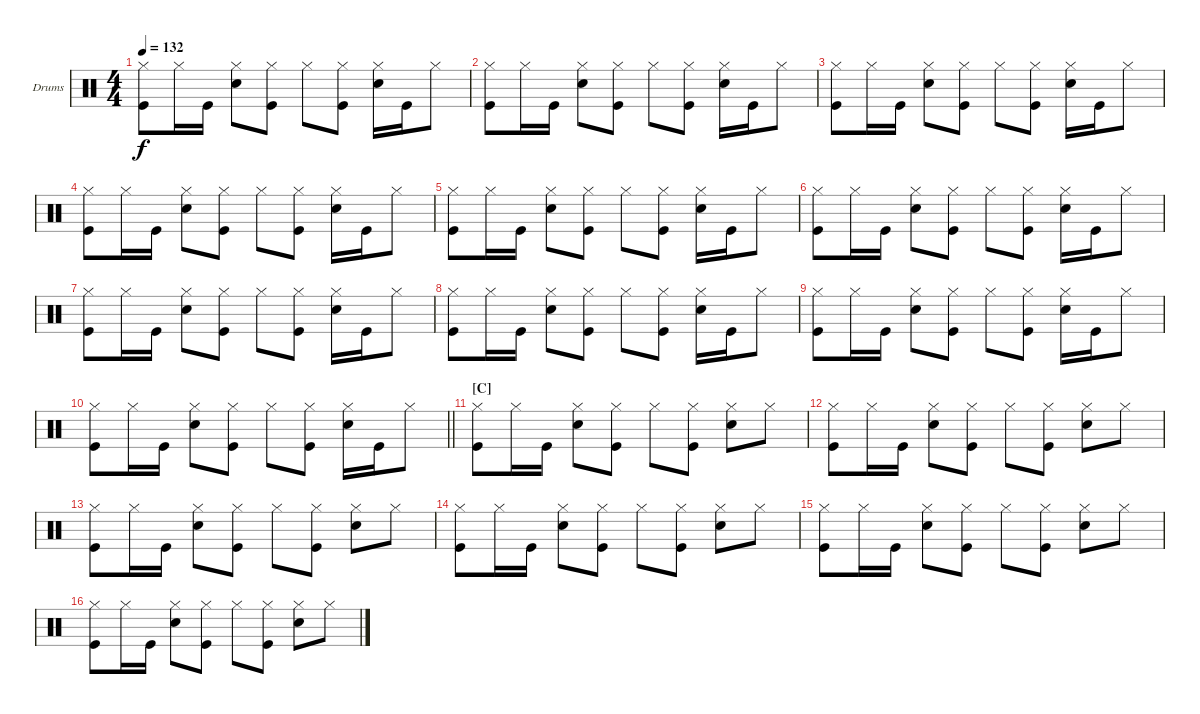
\bracketExtendMode groupsimilarinstruments
\firstSystemTrackNameOrientation horizontal
\otherSystemsTrackNameOrientation horizontal
\track ("Fabrizio Moretti" "Drums") {instrument percussion}
\staff {score}
\articulation defaults
\ts (4 4)
\tempo 132
\clef neutral
\ks c
("Hi-Hat (closed)" "Kick (hit)").8{dy f} "Hi-Hat (closed)".16 "Kick (hit)".16 ("Hi-Hat (closed)" "Snare (hit) 2").8 ("Hi-Hat (closed)" "Kick (hit)").8 "Hi-Hat (closed)".8 ("Hi-Hat (closed)" "Kick (hit)").8 ("Hi-Hat (closed)" "Snare (hit) 2").16 "Kick (hit)".16 "Hi-Hat (closed)".8 |
("Hi-Hat (closed)" "Kick (hit)").8 "Hi-Hat (closed)".16 "Kick (hit)".16 ("Hi-Hat (closed)" "Snare (hit) 2").8 ("Hi-Hat (closed)" "Kick (hit)").8 "Hi-Hat (closed)".8 ("Hi-Hat (closed)" "Kick (hit)").8 ("Hi-Hat (closed)" "Snare (hit) 2").16 "Kick (hit)".16 "Hi-Hat (closed)".8 |
("Hi-Hat (closed)" "Kick (hit)").8 "Hi-Hat (closed)".16 "Kick (hit)".16 ("Hi-Hat (closed)" "Snare (hit) 2").8 ("Hi-Hat (closed)" "Kick (hit)").8 "Hi-Hat (closed)".8 ("Hi-Hat (closed)" "Kick (hit)").8 ("Hi-Hat (closed)" "Snare (hit) 2").16 "Kick (hit)".16 "Hi-Hat (closed)".8 |
("Hi-Hat (closed)" "Kick (hit)").8 "Hi-Hat (closed)".16 "Kick (hit)".16 ("Hi-Hat (closed)" "Snare (hit) 2").8 ("Hi-Hat (closed)" "Kick (hit)").8 "Hi-Hat (closed)".8 ("Hi-Hat (closed)" "Kick (hit)").8 ("Hi-Hat (closed)" "Snare (hit) 2").16 "Kick (hit)".16 "Hi-Hat (closed)".8 |
("Hi-Hat (closed)" "Kick (hit)").8 "Hi-Hat (closed)".16 "Kick (hit)".16 ("Hi-Hat (closed)" "Snare (hit) 2").8 ("Hi-Hat (closed)" "Kick (hit)").8 "Hi-Hat (closed)".8 ("Hi-Hat (closed)" "Kick (hit)").8 ("Hi-Hat (closed)" "Snare (hit) 2").16 "Kick (hit)".16 "Hi-Hat (closed)".8 |
("Hi-Hat (closed)" "Kick (hit)").8 "Hi-Hat (closed)".16 "Kick (hit)".16 ("Hi-Hat (closed)" "Snare (hit) 2").8 ("Hi-Hat (closed)" "Kick (hit)").8 "Hi-Hat (closed)".8 ("Hi-Hat (closed)" "Kick (hit)").8 ("Hi-Hat (closed)" "Snare (hit) 2").16 "Kick (hit)".16 "Hi-Hat (closed)".8 |
("Hi-Hat (closed)" "Kick (hit)").8 "Hi-Hat (closed)".16 "Kick (hit)".16 ("Hi-Hat (closed)" "Snare (hit) 2").8 ("Hi-Hat (closed)" "Kick (hit)").8 "Hi-Hat (closed)".8 ("Hi-Hat (closed)" "Kick (hit)").8 ("Hi-Hat (closed)" "Snare (hit) 2").16 "Kick (hit)".16 "Hi-Hat (closed)".8 |
("Hi-Hat (closed)" "Kick (hit)").8 "Hi-Hat (closed)".16 "Kick (hit)".16 ("Hi-Hat (closed)" "Snare (hit) 2").8 ("Hi-Hat (closed)" "Kick (hit)").8 "Hi-Hat (closed)".8 ("Hi-Hat (closed)" "Kick (hit)").8 ("Hi-Hat (closed)" "Snare (hit) 2").16 "Kick (hit)".16 "Hi-Hat (closed)".8 |
("Hi-Hat (closed)" "Kick (hit)").8 "Hi-Hat (closed)".16 "Kick (hit)".16 ("Hi-Hat (closed)" "Snare (hit) 2").8 ("Hi-Hat (closed)" "Kick (hit)").8 "Hi-Hat (closed)".8 ("Hi-Hat (closed)" "Kick (hit)").8 ("Hi-Hat (closed)" "Snare (hit) 2").16 "Kick (hit)".16 "Hi-Hat (closed)".8 |
\barLineRight lightlight
("Hi-Hat (closed)" "Kick (hit)").8 "Hi-Hat (closed)".16 "Kick (hit)".16 ("Hi-Hat (closed)" "Snare (hit) 2").8 ("Hi-Hat (closed)" "Kick (hit)").8 "Hi-Hat (closed)".8 ("Hi-Hat (closed)" "Kick (hit)").8 ("Hi-Hat (closed)" "Snare (hit) 2").16 "Kick (hit)".16 "Hi-Hat (closed)".8 |
\section ("C" "")
("Hi-Hat (closed)" "Kick (hit)").8 "Hi-Hat (closed)".16 "Kick (hit)".16 ("Hi-Hat (closed)" "Snare (hit) 2").8 ("Hi-Hat (closed)" "Kick (hit)").8 "Hi-Hat (closed)".8 ("Hi-Hat (closed)" "Kick (hit)").8 ("Hi-Hat (closed)" "Snare (hit) 2").8 "Hi-Hat (closed)".8 |
("Hi-Hat (closed)" "Kick (hit)").8 "Hi-Hat (closed)".16 "Kick (hit)".16 ("Hi-Hat (closed)" "Snare (hit) 2").8 ("Hi-Hat (closed)" "Kick (hit)").8 "Hi-Hat (closed)".8 ("Hi-Hat (closed)" "Kick (hit)").8 ("Hi-Hat (closed)" "Snare (hit) 2").8 "Hi-Hat (closed)".8 |
("Hi-Hat (closed)" "Kick (hit)").8 "Hi-Hat (closed)".16 "Kick (hit)".16 ("Hi-Hat (closed)" "Snare (hit) 2").8 ("Hi-Hat (closed)" "Kick (hit)").8 "Hi-Hat (closed)".8 ("Hi-Hat (closed)" "Kick (hit)").8 ("Hi-Hat (closed)" "Snare (hit) 2").8 "Hi-Hat (closed)".8 |
("Hi-Hat (closed)" "Kick (hit)").8 "Hi-Hat (closed)".16 "Kick (hit)".16 ("Hi-Hat (closed)" "Snare (hit) 2").8 ("Hi-Hat (closed)" "Kick (hit)").8 "Hi-Hat (closed)".8 ("Hi-Hat (closed)" "Kick (hit)").8 ("Hi-Hat (closed)" "Snare (hit) 2").8 "Hi-Hat (closed)".8 |
("Hi-Hat (closed)" "Kick (hit)").8 "Hi-Hat (closed)".16 "Kick (hit)".16 ("Hi-Hat (closed)" "Snare (hit) 2").8 ("Hi-Hat (closed)" "Kick (hit)").8 "Hi-Hat (closed)".8 ("Hi-Hat (closed)" "Kick (hit)").8 ("Hi-Hat (closed)" "Snare (hit) 2").8 "Hi-Hat (closed)".8 |
("Hi-Hat (closed)" "Kick (hit)").8 "Hi-Hat (closed)".16 "Kick (hit)".16 ("Hi-Hat (closed)" "Snare (hit) 2").8 ("Hi-Hat (closed)" "Kick (hit)").8 "Hi-Hat (closed)".8 ("Hi-Hat (closed)" "Kick (hit)").8 ("Hi-Hat (closed)" "Snare (hit) 2").8 "Hi-Hat (closed)".8
